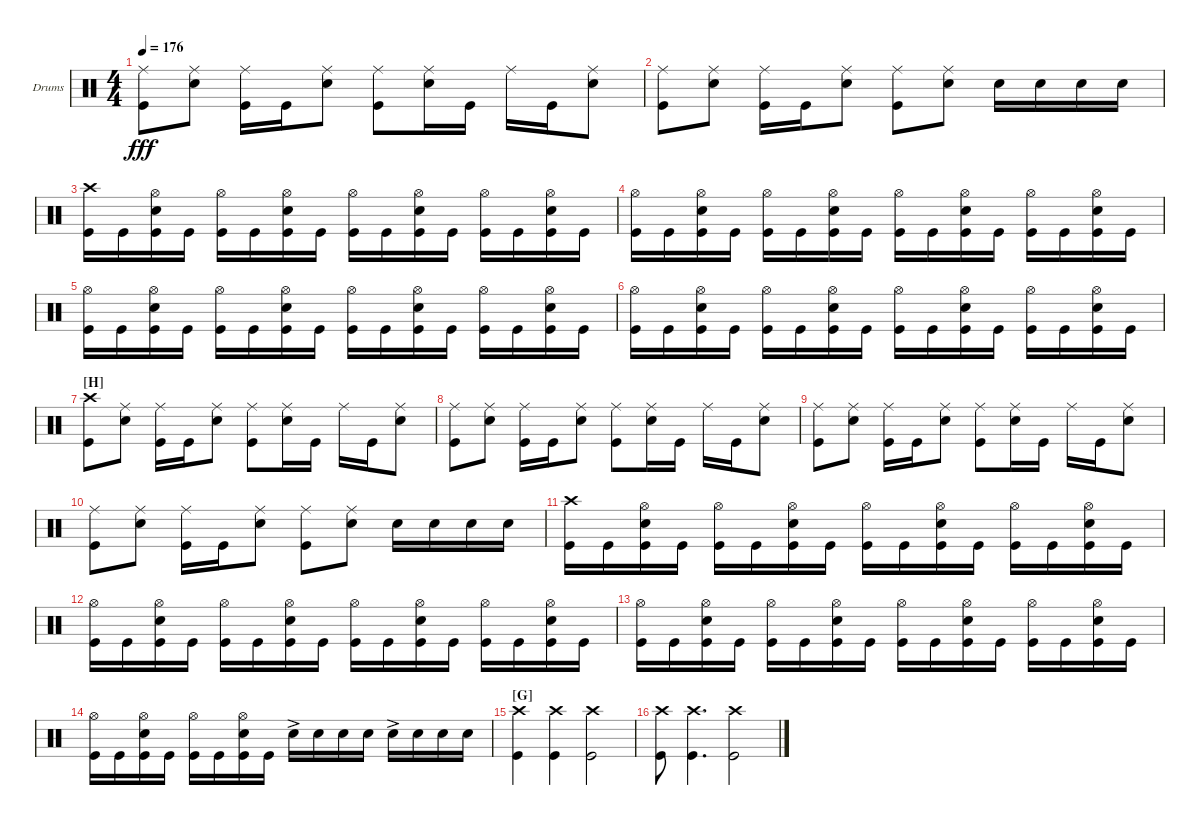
\defaultSystemsLayout 4
\bracketExtendMode groupsimilarinstruments
\firstSystemTrackNameOrientation horizontal
\otherSystemsTrackNameOrientation horizontal
\track ("Drums" "Drums") {instrument percussion}
\staff {score}
\articulation defaults
\ts (4 4)
\tempo 176
\clef neutral
\ks c
("Kick (hit)" "Ride (middle)").8{dy fff} ("Snare (hit) 2" "Ride (middle)").8 ("Kick (hit)" "Ride (middle)").16 "Kick (hit)".16 ("Snare (hit) 2" "Ride (middle)").8 ("Kick (hit)" "Ride (middle)").8 ("Snare (hit) 2" "Ride (middle)").16 "Kick (hit)".16 "Ride (middle)".16 "Kick (hit)".16 ("Snare (hit) 2" "Ride (middle)").8 |
("Kick (hit)" "Ride (middle)").8 ("Snare (hit) 2" "Ride (middle)").8 ("Kick (hit)" "Ride (middle)").16 "Kick (hit)".16 ("Snare (hit) 2" "Ride (middle)").8 ("Kick (hit)" "Ride (middle)").8 ("Snare (hit) 2" "Ride (middle)").8 "Snare (hit) 2".16 "Snare (hit) 2".16 "Snare (hit) 2".16 "Snare (hit) 2".16 |
("Kick (hit)" "Crash high (hit)").16 "Kick (hit)".16 ("Kick (hit)" "Snare (hit) 2" "Hi-Hat (open)").16 "Kick (hit)".16 ("Kick (hit)" "Hi-Hat (open)").16 "Kick (hit)".16 ("Kick (hit)" "Snare (hit) 2" "Hi-Hat (open)").16 "Kick (hit)".16 ("Kick (hit)" "Hi-Hat (open)").16 "Kick (hit)".16 ("Kick (hit)" "Snare (hit) 2" "Hi-Hat (open)").16 "Kick (hit)".16 ("Kick (hit)" "Hi-Hat (open)").16 "Kick (hit)".16 ("Kick (hit)" "Snare (hit) 2" "Hi-Hat (open)").16 "Kick (hit)".16 |
("Kick (hit)" "Hi-Hat (open)").16 "Kick (hit)".16 ("Kick (hit)" "Snare (hit) 2" "Hi-Hat (open)").16 "Kick (hit)".16 ("Kick (hit)" "Hi-Hat (open)").16 "Kick (hit)".16 ("Kick (hit)" "Snare (hit) 2" "Hi-Hat (open)").16 "Kick (hit)".16 ("Kick (hit)" "Hi-Hat (open)").16 "Kick (hit)".16 ("Kick (hit)" "Snare (hit) 2" "Hi-Hat (open)").16 "Kick (hit)".16 ("Kick (hit)" "Hi-Hat (open)").16 "Kick (hit)".16 ("Kick (hit)" "Snare (hit) 2" "Hi-Hat (open)").16 "Kick (hit)".16 |
("Kick (hit)" "Hi-Hat (open)").16 "Kick (hit)".16 ("Kick (hit)" "Snare (hit) 2" "Hi-Hat (open)").16 "Kick (hit)".16 ("Kick (hit)" "Hi-Hat (open)").16 "Kick (hit)".16 ("Kick (hit)" "Snare (hit) 2" "Hi-Hat (open)").16 "Kick (hit)".16 ("Kick (hit)" "Hi-Hat (open)").16 "Kick (hit)".16 ("Kick (hit)" "Snare (hit) 2" "Hi-Hat (open)").16 "Kick (hit)".16 ("Kick (hit)" "Hi-Hat (open)").16 "Kick (hit)".16 ("Kick (hit)" "Snare (hit) 2" "Hi-Hat (open)").16 "Kick (hit)".16 |
("Kick (hit)" "Hi-Hat (open)").16 "Kick (hit)".16 ("Kick (hit)" "Snare (hit) 2" "Hi-Hat (open)").16 "Kick (hit)".16 ("Kick (hit)" "Hi-Hat (open)").16 "Kick (hit)".16 ("Kick (hit)" "Snare (hit) 2" "Hi-Hat (open)").16 "Kick (hit)".16 ("Kick (hit)" "Hi-Hat (open)").16 "Kick (hit)".16 ("Kick (hit)" "Snare (hit) 2" "Hi-Hat (open)").16 "Kick (hit)".16 ("Kick (hit)" "Hi-Hat (open)").16 "Kick (hit)".16 ("Kick (hit)" "Snare (hit) 2" "Hi-Hat (open)").16 "Kick (hit)".16 |
\section ("H" "")
("Crash high (hit)" "Kick (hit)").8 ("Snare (hit) 2" "Ride (middle)").8 ("Kick (hit)" "Ride (middle)").16 "Kick (hit)".16 ("Snare (hit) 2" "Ride (middle)").8 ("Kick (hit)" "Ride (middle)").8 ("Snare (hit) 2" "Ride (middle)").16 "Kick (hit)".16 "Ride (middle)".16 "Kick (hit)".16 ("Snare (hit) 2" "Ride (middle)").8 |
("Kick (hit)" "Ride (middle)").8 ("Snare (hit) 2" "Ride (middle)").8 ("Kick (hit)" "Ride (middle)").16 "Kick (hit)".16 ("Snare (hit) 2" "Ride (middle)").8 ("Kick (hit)" "Ride (middle)").8 ("Snare (hit) 2" "Ride (middle)").16 "Kick (hit)".16 "Ride (middle)".16 "Kick (hit)".16 ("Snare (hit) 2" "Ride (middle)").8 |
("Kick (hit)" "Ride (middle)").8 ("Snare (hit) 2" "Ride (middle)").8 ("Kick (hit)" "Ride (middle)").16 "Kick (hit)".16 ("Snare (hit) 2" "Ride (middle)").8 ("Kick (hit)" "Ride (middle)").8 ("Snare (hit) 2" "Ride (middle)").16 "Kick (hit)".16 "Ride (middle)".16 "Kick (hit)".16 ("Snare (hit) 2" "Ride (middle)").8 |
("Kick (hit)" "Ride (middle)").8 ("Snare (hit) 2" "Ride (middle)").8 ("Kick (hit)" "Ride (middle)").16 "Kick (hit)".16 ("Snare (hit) 2" "Ride (middle)").8 ("Kick (hit)" "Ride (middle)").8 ("Snare (hit) 2" "Ride (middle)").8 "Snare (hit) 2".16 "Snare (hit) 2".16 "Snare (hit) 2".16 "Snare (hit) 2".16 |
("Kick (hit)" "Crash high (hit)").16 "Kick (hit)".16 ("Kick (hit)" "Snare (hit) 2" "Hi-Hat (open)").16 "Kick (hit)".16 ("Kick (hit)" "Hi-Hat (open)").16 "Kick (hit)".16 ("Kick (hit)" "Snare (hit) 2" "Hi-Hat (open)").16 "Kick (hit)".16 ("Kick (hit)" "Hi-Hat (open)").16 "Kick (hit)".16 ("Kick (hit)" "Snare (hit) 2" "Hi-Hat (open)").16 "Kick (hit)".16 ("Kick (hit)" "Hi-Hat (open)").16 "Kick (hit)".16 ("Kick (hit)" "Snare (hit) 2" "Hi-Hat (open)").16 "Kick (hit)".16 |
("Kick (hit)" "Hi-Hat (open)").16 "Kick (hit)".16 ("Kick (hit)" "Snare (hit) 2" "Hi-Hat (open)").16 "Kick (hit)".16 ("Kick (hit)" "Hi-Hat (open)").16 "Kick (hit)".16 ("Kick (hit)" "Snare (hit) 2" "Hi-Hat (open)").16 "Kick (hit)".16 ("Kick (hit)" "Hi-Hat (open)").16 "Kick (hit)".16 ("Kick (hit)" "Snare (hit) 2" "Hi-Hat (open)").16 "Kick (hit)".16 ("Kick (hit)" "Hi-Hat (open)").16 "Kick (hit)".16 ("Kick (hit)" "Snare (hit) 2" "Hi-Hat (open)").16 "Kick (hit)".16 |
("Kick (hit)" "Hi-Hat (open)").16 "Kick (hit)".16 ("Kick (hit)" "Snare (hit) 2" "Hi-Hat (open)").16 "Kick (hit)".16 ("Kick (hit)" "Hi-Hat (open)").16 "Kick (hit)".16 ("Kick (hit)" "Snare (hit) 2" "Hi-Hat (open)").16 "Kick (hit)".16 ("Kick (hit)" "Hi-Hat (open)").16 "Kick (hit)".16 ("Kick (hit)" "Snare (hit) 2" "Hi-Hat (open)").16 "Kick (hit)".16 ("Kick (hit)" "Hi-Hat (open)").16 "Kick (hit)".16 ("Kick (hit)" "Snare (hit) 2" "Hi-Hat (open)").16 "Kick (hit)".16 |
("Kick (hit)" "Hi-Hat (open)").16 "Kick (hit)".16 ("Kick (hit)" "Snare (hit) 2" "Hi-Hat (open)").16 "Kick (hit)".16 ("Kick (hit)" "Hi-Hat (open)").16 "Kick (hit)".16 ("Kick (hit)" "Snare (hit) 2" "Hi-Hat (open)").16 "Kick (hit)".16 "Snare (hit) 2"{ac}.16 "Snare (hit) 2".16 "Snare (hit) 2".16 "Snare (hit) 2".16 "Snare (hit) 2"{ac}.16 "Snare (hit) 2".16 "Snare (hit) 2".16 "Snare (hit) 2".16 |
\section ("G" "")
("Kick (hit)" "Crash high (hit)").4 ("Kick (hit)" "Crash high (hit)").4 ("Kick (hit)" "Crash high (hit)").2 |
("Kick (hit)" "Crash high (hit)").8 ("Kick (hit)" "Crash high (hit)").4{d} ("Kick (hit)" "Crash high (hit)").2
